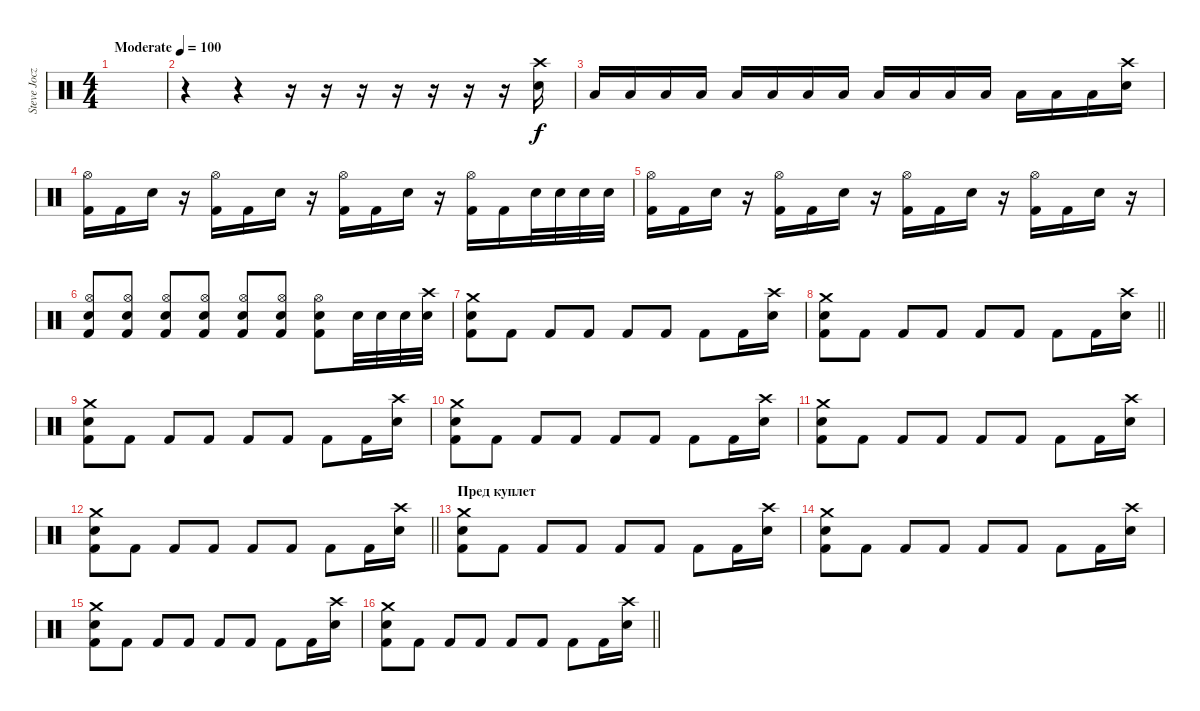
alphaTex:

\track ("Steve Jocz" "Steve Jocz") {instrument percussion}
\staff {score}
\articulation defaults
\ts (4 4)
\tempo (100 "Moderate")
\clef neutral
\ks c
|
r.4 r.4 r.16 r.16 r.16 r.16 r.16 r.16 r.16 ("Crash high (hit)" "Electric Snare (hit)").16 |
"Low Tom (hit)".16 "Low Tom (hit)".16 "Low Floor Tom (hit)".16 "Low Floor Tom (hit)".16 "Low Tom (hit)".16 "Low Tom (hit)".16 "Low Floor Tom (hit)".16 "Low Floor Tom (hit)".16 "Low Tom (hit)".16 "Low Tom (hit)".16 "Low Floor Tom (hit)".16 "Low Floor Tom (hit)".16 "Low Tom (hit)".16 "Low Tom (hit)".16 "Low Floor Tom (hit)".16 ("Crash high (hit)" "Electric Snare (hit)").16 |
("Hi-Hat (open)" "Kick (hit) 2").16 "Kick (hit) 2".16 "Electric Snare (hit)".16 r.16 ("Hi-Hat (open)" "Kick (hit) 2").16 "Kick (hit) 2".16 "Electric Snare (hit)".16 r.16 ("Hi-Hat (open)" "Kick (hit) 2").16 "Kick (hit) 2".16 "Electric Snare (hit)".16 r.16 ("Hi-Hat (open)" "Kick (hit) 2").16 "Kick (hit) 2".16 "Electric Snare (hit)".32 "Electric Snare (hit)".32 "Electric Snare (hit)".32 "Electric Snare (hit)".32 |
("Hi-Hat (open)" "Kick (hit) 2").16 "Kick (hit) 2".16 "Electric Snare (hit)".16 r.16 ("Hi-Hat (open)" "Kick (hit) 2").16 "Kick (hit) 2".16 "Electric Snare (hit)".16 r.16 ("Hi-Hat (open)" "Kick (hit) 2").16 "Kick (hit) 2".16 "Electric Snare (hit)".16 r.16 ("Hi-Hat (open)" "Kick (hit) 2").16 "Kick (hit) 2".16 "Electric Snare (hit)".16 r.16 |
("Hi-Hat (open)" "Electric Snare (hit)" "Kick (hit) 2").8 ("Hi-Hat (open)" "Electric Snare (hit)" "Kick (hit) 2").8 ("Hi-Hat (open)" "Electric Snare (hit)" "Kick (hit) 2").8 ("Hi-Hat (open)" "Electric Snare (hit)" "Kick (hit) 2").8 ("Hi-Hat (open)" "Electric Snare (hit)" "Kick (hit) 2").8 ("Hi-Hat (open)" "Electric Snare (hit)" "Kick (hit) 2").8 ("Hi-Hat (open)" "Electric Snare (hit)" "Kick (hit) 2").8 "Electric Snare (hit)".32 "Electric Snare (hit)".32 "Electric Snare (hit)".32 ("Crash high (hit)" "Electric Snare (hit)").32 |
("Crash medium (hit)" "Electric Snare (hit)" "Kick (hit) 2").8 "Kick (hit) 2".8 "Kick (hit) 2".8 "Kick (hit) 2".8 "Kick (hit) 2".8 "Kick (hit) 2".8 "Kick (hit) 2".8 "Kick (hit) 2".16 ("Crash high (hit)" "Electric Snare (hit)").16 |
\barLineRight lightlight
("Crash medium (hit)" "Electric Snare (hit)" "Kick (hit) 2").8 "Kick (hit) 2".8 "Kick (hit) 2".8 "Kick (hit) 2".8 "Kick (hit) 2".8 "Kick (hit) 2".8 "Kick (hit) 2".8 "Kick (hit) 2".16 ("Crash high (hit)" "Electric Snare (hit)").16 |
("Crash medium (hit)" "Electric Snare (hit)" "Kick (hit) 2").8 "Kick (hit) 2".8 "Kick (hit) 2".8 "Kick (hit) 2".8 "Kick (hit) 2".8 "Kick (hit) 2".8 "Kick (hit) 2".8 "Kick (hit) 2".16 ("Crash high (hit)" "Electric Snare (hit)").16 |
("Crash medium (hit)" "Electric Snare (hit)" "Kick (hit) 2").8 "Kick (hit) 2".8 "Kick (hit) 2".8 "Kick (hit) 2".8 "Kick (hit) 2".8 "Kick (hit) 2".8 "Kick (hit) 2".8 "Kick (hit) 2".16 ("Crash high (hit)" "Electric Snare (hit)").16 |
("Crash medium (hit)" "Electric Snare (hit)" "Kick (hit) 2").8 "Kick (hit) 2".8 "Kick (hit) 2".8 "Kick (hit) 2".8 "Kick (hit) 2".8 "Kick (hit) 2".8 "Kick (hit) 2".8 "Kick (hit) 2".16 ("Crash high (hit)" "Electric Snare (hit)").16 |
\barLineRight lightlight
("Crash medium (hit)" "Electric Snare (hit)" "Kick (hit) 2").8 "Kick (hit) 2".8 "Kick (hit) 2".8 "Kick (hit) 2".8 "Kick (hit) 2".8 "Kick (hit) 2".8 "Kick (hit) 2".8 "Kick (hit) 2".16 ("Crash high (hit)" "Electric Snare (hit)").16 |
\section ("" "Пред куплет")
("Crash medium (hit)" "Electric Snare (hit)" "Kick (hit) 2").8 "Kick (hit) 2".8 "Kick (hit) 2".8 "Kick (hit) 2".8 "Kick (hit) 2".8 "Kick (hit) 2".8 "Kick (hit) 2".8 "Kick (hit) 2".16 ("Crash high (hit)" "Electric Snare (hit)").16 |
("Crash medium (hit)" "Electric Snare (hit)" "Kick (hit) 2").8 "Kick (hit) 2".8 "Kick (hit) 2".8 "Kick (hit) 2".8 "Kick (hit) 2".8 "Kick (hit) 2".8 "Kick (hit) 2".8 "Kick (hit) 2".16 ("Crash high (hit)" "Electric Snare (hit)").16 |
("Crash medium (hit)" "Electric Snare (hit)" "Kick (hit) 2").8 "Kick (hit) 2".8 "Kick (hit) 2".8 "Kick (hit) 2".8 "Kick (hit) 2".8 "Kick (hit) 2".8 "Kick (hit) 2".8 "Kick (hit) 2".16 ("Crash high (hit)" "Electric Snare (hit)").16 |
\barLineRight lightlight
("Crash medium (hit)" "Electric Snare (hit)" "Kick (hit) 2").8 "Kick (hit) 2".8 "Kick (hit) 2".8 "Kick (hit) 2".8 "Kick (hit) 2".8 "Kick (hit) 2".8 "Kick (hit) 2".8 "Kick (hit) 2".16 ("Crash high (hit)" "Electric Snare (hit)").16
